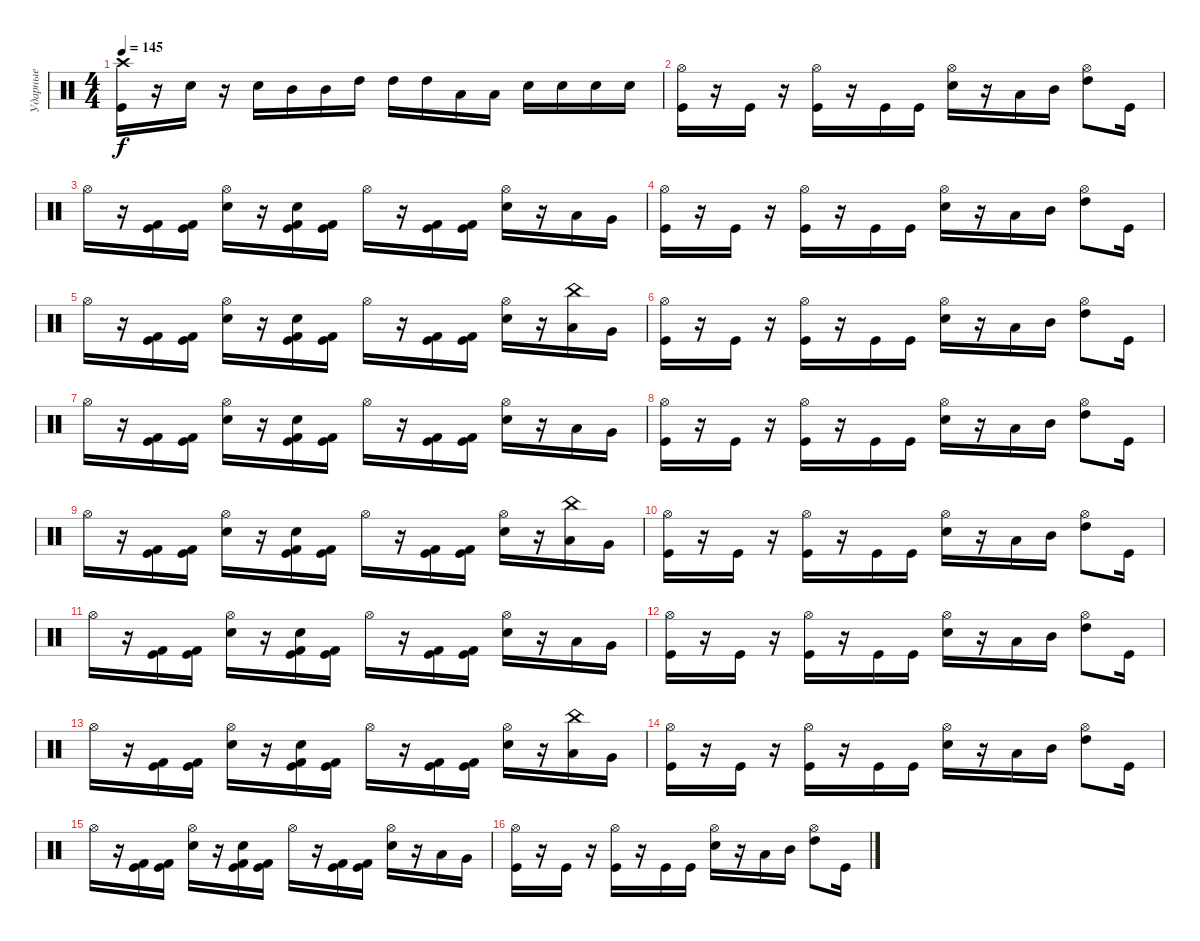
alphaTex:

\track ("Ударные" "Ударные") {instrument percussion}
\staff {score}
\articulation defaults
\ts (4 4)
\tempo 145
\clef neutral
\ks c
("Kick (hit)" "Crash high (hit)").16{dy f} r.16 "Electric Snare (hit)".16 r.16 "Electric Snare (hit)".16 "Mid Tom (hit)".16 "Mid Tom (hit)".16 "High Tom (hit)".16 "High Tom (hit)".16 "High Tom (hit)".16 "Low Floor Tom (hit)".16 "Low Floor Tom (hit)".16 "Electric Snare (hit)".16 "Electric Snare (hit)".16 "Electric Snare (hit)".16 "Electric Snare (hit)".16 |
("Kick (hit)" "Hi-Hat (open)").16 r.16 "Kick (hit)".16 r.16 ("Kick (hit)" "Hi-Hat (open)").16 r.16 "Kick (hit)".16 "Kick (hit)".16 ("Electric Snare (hit)" "Hi-Hat (open)").16 r.16 "Low Tom (hit)".16 "Mid Tom (hit)".16 ("High Tom (hit)" "Hi-Hat (open)").8 "Kick (hit)".16 |
"Hi-Hat (open)".16 r.16 ("Kick (hit)" "Kick (hit) 2").16 ("Kick (hit)" "Kick (hit) 2").16 ("Electric Snare (hit)" "Hi-Hat (open)").16 r.16 ("Kick (hit)" "Kick (hit) 2" "Electric Snare (hit)").16 ("Kick (hit)" "Kick (hit) 2").16 "Hi-Hat (open)".16 r.16 ("Kick (hit)" "Kick (hit) 2").16 ("Kick (hit)" "Kick (hit) 2").16 ("Electric Snare (hit)" "Hi-Hat (open)").16 r.16 "Low Tom (hit)".16 "Very Low Tom (hit)".16 |
("Kick (hit)" "Hi-Hat (open)").16 r.16 "Kick (hit)".16 r.16 ("Kick (hit)" "Hi-Hat (open)").16 r.16 "Kick (hit)".16 "Kick (hit)".16 ("Electric Snare (hit)" "Hi-Hat (open)").16 r.16 "Low Tom (hit)".16 "Mid Tom (hit)".16 ("High Tom (hit)" "Hi-Hat (open)").8 "Kick (hit)".16 |
"Hi-Hat (open)".16 r.16 ("Kick (hit)" "Kick (hit) 2").16 ("Kick (hit)" "Kick (hit) 2").16 ("Electric Snare (hit)" "Hi-Hat (open)").16 r.16 ("Kick (hit)" "Kick (hit) 2" "Electric Snare (hit)").16 ("Kick (hit)" "Kick (hit) 2").16 "Hi-Hat (open)".16 r.16 ("Kick (hit)" "Kick (hit) 2").16 ("Kick (hit)" "Kick (hit) 2").16 ("Electric Snare (hit)" "Hi-Hat (open)").16 r.16 ("Low Tom (hit)" "China (hit)").16 "Very Low Tom (hit)".16 |
("Kick (hit)" "Hi-Hat (open)").16 r.16 "Kick (hit)".16 r.16 ("Kick (hit)" "Hi-Hat (open)").16 r.16 "Kick (hit)".16 "Kick (hit)".16 ("Electric Snare (hit)" "Hi-Hat (open)").16 r.16 "Low Tom (hit)".16 "Mid Tom (hit)".16 ("High Tom (hit)" "Hi-Hat (open)").8 "Kick (hit)".16 |
"Hi-Hat (open)".16 r.16 ("Kick (hit)" "Kick (hit) 2").16 ("Kick (hit)" "Kick (hit) 2").16 ("Electric Snare (hit)" "Hi-Hat (open)").16 r.16 ("Kick (hit)" "Kick (hit) 2" "Electric Snare (hit)").16 ("Kick (hit)" "Kick (hit) 2").16 "Hi-Hat (open)".16 r.16 ("Kick (hit)" "Kick (hit) 2").16 ("Kick (hit)" "Kick (hit) 2").16 ("Electric Snare (hit)" "Hi-Hat (open)").16 r.16 "Low Tom (hit)".16 "Very Low Tom (hit)".16 |
("Kick (hit)" "Hi-Hat (open)").16 r.16 "Kick (hit)".16 r.16 ("Kick (hit)" "Hi-Hat (open)").16 r.16 "Kick (hit)".16 "Kick (hit)".16 ("Electric Snare (hit)" "Hi-Hat (open)").16 r.16 "Low Tom (hit)".16 "Mid Tom (hit)".16 ("High Tom (hit)" "Hi-Hat (open)").8 "Kick (hit)".16 |
"Hi-Hat (open)".16 r.16 ("Kick (hit)" "Kick (hit) 2").16 ("Kick (hit)" "Kick (hit) 2").16 ("Electric Snare (hit)" "Hi-Hat (open)").16 r.16 ("Kick (hit)" "Kick (hit) 2" "Electric Snare (hit)").16 ("Kick (hit)" "Kick (hit) 2").16 "Hi-Hat (open)".16 r.16 ("Kick (hit)" "Kick (hit) 2").16 ("Kick (hit)" "Kick (hit) 2").16 ("Electric Snare (hit)" "Hi-Hat (open)").16 r.16 ("Low Tom (hit)" "China (hit)").16 "Very Low Tom (hit)".16 |
("Kick (hit)" "Hi-Hat (open)").16 r.16 "Kick (hit)".16 r.16 ("Kick (hit)" "Hi-Hat (open)").16 r.16 "Kick (hit)".16 "Kick (hit)".16 ("Electric Snare (hit)" "Hi-Hat (open)").16 r.16 "Low Tom (hit)".16 "Mid Tom (hit)".16 ("High Tom (hit)" "Hi-Hat (open)").8 "Kick (hit)".16 |
"Hi-Hat (open)".16 r.16 ("Kick (hit)" "Kick (hit) 2").16 ("Kick (hit)" "Kick (hit) 2").16 ("Electric Snare (hit)" "Hi-Hat (open)").16 r.16 ("Kick (hit)" "Kick (hit) 2" "Electric Snare (hit)").16 ("Kick (hit)" "Kick (hit) 2").16 "Hi-Hat (open)".16 r.16 ("Kick (hit)" "Kick (hit) 2").16 ("Kick (hit)" "Kick (hit) 2").16 ("Electric Snare (hit)" "Hi-Hat (open)").16 r.16 "Low Tom (hit)".16 "Very Low Tom (hit)".16 |
("Kick (hit)" "Hi-Hat (open)").16 r.16 "Kick (hit)".16 r.16 ("Kick (hit)" "Hi-Hat (open)").16 r.16 "Kick (hit)".16 "Kick (hit)".16 ("Electric Snare (hit)" "Hi-Hat (open)").16 r.16 "Low Tom (hit)".16 "Mid Tom (hit)".16 ("High Tom (hit)" "Hi-Hat (open)").8 "Kick (hit)".16 |
"Hi-Hat (open)".16 r.16 ("Kick (hit)" "Kick (hit) 2").16 ("Kick (hit)" "Kick (hit) 2").16 ("Electric Snare (hit)" "Hi-Hat (open)").16 r.16 ("Kick (hit)" "Kick (hit) 2" "Electric Snare (hit)").16 ("Kick (hit)" "Kick (hit) 2").16 "Hi-Hat (open)".16 r.16 ("Kick (hit)" "Kick (hit) 2").16 ("Kick (hit)" "Kick (hit) 2").16 ("Electric Snare (hit)" "Hi-Hat (open)").16 r.16 ("Low Tom (hit)" "China (hit)").16 "Very Low Tom (hit)".16 |
("Kick (hit)" "Hi-Hat (open)").16 r.16 "Kick (hit)".16 r.16 ("Kick (hit)" "Hi-Hat (open)").16 r.16 "Kick (hit)".16 "Kick (hit)".16 ("Electric Snare (hit)" "Hi-Hat (open)").16 r.16 "Low Tom (hit)".16 "Mid Tom (hit)".16 ("High Tom (hit)" "Hi-Hat (open)").8 "Kick (hit)".16 |
"Hi-Hat (open)".16 r.16 ("Kick (hit)" "Kick (hit) 2").16 ("Kick (hit)" "Kick (hit) 2").16 ("Electric Snare (hit)" "Hi-Hat (open)").16 r.16 ("Kick (hit)" "Kick (hit) 2" "Electric Snare (hit)").16 ("Kick (hit)" "Kick (hit) 2").16 "Hi-Hat (open)".16 r.16 ("Kick (hit)" "Kick (hit) 2").16 ("Kick (hit)" "Kick (hit) 2").16 ("Electric Snare (hit)" "Hi-Hat (open)").16 r.16 "Low Tom (hit)".16 "Very Low Tom (hit)".16 |
("Kick (hit)" "Hi-Hat (open)").16 r.16 "Kick (hit)".16 r.16 ("Kick (hit)" "Hi-Hat (open)").16 r.16 "Kick (hit)".16 "Kick (hit)".16 ("Electric Snare (hit)" "Hi-Hat (open)").16 r.16 "Low Tom (hit)".16 "Mid Tom (hit)".16 ("High Tom (hit)" "Hi-Hat (open)").8 "Kick (hit)".16
